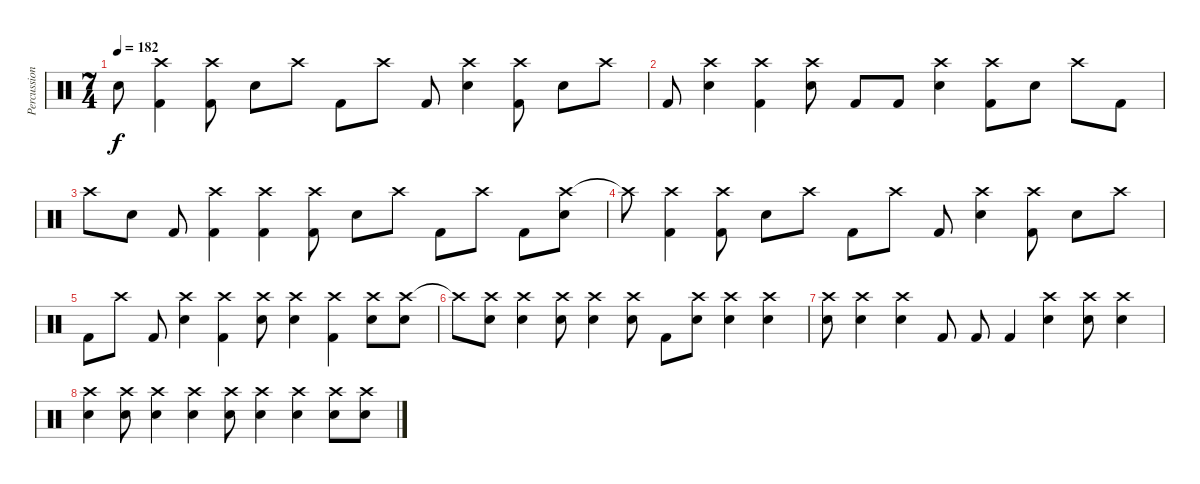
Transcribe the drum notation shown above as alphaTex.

\track ("Percussion" "Percussion") {instrument percussion}
\staff {score}
\articulation defaults
\ts (7 4)
\tempo 182
\clef neutral
\ks c "Electric Snare (hit)"{t}.8{dy f}
("Crash high (hit)" "Kick (hit) 2").4 ("Crash high (hit)" "Kick (hit) 2").8 "Electric Snare (hit)".8 "Crash high (hit)".8 "Kick (hit) 2".8 "Crash high (hit)".8 "Kick (hit) 2".8 ("Crash high (hit)" "Electric Snare (hit)").4 ("Crash high (hit)" "Kick (hit) 2").8 "Electric Snare (hit)".8 "Crash high (hit)".8 |
"Kick (hit) 2".8 ("Crash high (hit)" "Electric Snare (hit)").4 ("Crash high (hit)" "Kick (hit) 2").4 ("Crash high (hit)" "Electric Snare (hit)").8 "Kick (hit) 2".8 "Kick (hit) 2".8 ("Crash high (hit)" "Electric Snare (hit)").4 ("Crash high (hit)" "Kick (hit) 2").8 "Electric Snare (hit)".8 "Crash high (hit)".8 "Kick (hit) 2".8 |
"Crash high (hit)".8 "Electric Snare (hit)".8 "Kick (hit) 2".8 ("Crash high (hit)" "Kick (hit) 2").4 ("Crash high (hit)" "Kick (hit) 2").4 ("Crash high (hit)" "Kick (hit) 2").8 "Electric Snare (hit)".8 "Crash high (hit)".8 "Kick (hit) 2".8 "Crash high (hit)".8 "Kick (hit) 2".8 ("Crash high (hit)" "Electric Snare (hit)").8 |
"Crash high (hit)"{t}.8 ("Crash high (hit)" "Kick (hit) 2").4 ("Crash high (hit)" "Kick (hit) 2").8 "Electric Snare (hit)".8 "Crash high (hit)".8 "Kick (hit) 2".8 "Crash high (hit)".8 "Kick (hit) 2".8 ("Crash high (hit)" "Electric Snare (hit)").4 ("Crash high (hit)" "Kick (hit) 2").8 "Electric Snare (hit)".8 "Crash high (hit)".8 |
"Kick (hit) 2".8 "Crash high (hit)".8 "Kick (hit) 2".8 ("Crash high (hit)" "Electric Snare (hit)").4 ("Crash high (hit)" "Kick (hit) 2").4 ("Crash high (hit)" "Electric Snare (hit)").8 ("Crash high (hit)" "Electric Snare (hit)").4 ("Crash high (hit)" "Kick (hit) 2").4 ("Crash high (hit)" "Electric Snare (hit)").8 ("Crash high (hit)" "Electric Snare (hit)").8 |
"Crash high (hit)"{t}.8 ("Crash high (hit)" "Electric Snare (hit)").8 ("Crash high (hit)" "Electric Snare (hit)").4 ("Crash high (hit)" "Electric Snare (hit)").8 ("Crash high (hit)" "Electric Snare (hit)").4 ("Crash high (hit)" "Electric Snare (hit)").8 "Kick (hit) 2".8 ("Crash high (hit)" "Electric Snare (hit)").8 ("Crash high (hit)" "Electric Snare (hit)").4 ("Crash high (hit)" "Electric Snare (hit)").4 |
("Crash high (hit)" "Electric Snare (hit)").8 ("Crash high (hit)" "Electric Snare (hit)").4 ("Crash high (hit)" "Electric Snare (hit)").4 "Kick (hit) 2".8 "Kick (hit) 2".8 "Kick (hit) 2".4 ("Crash high (hit)" "Electric Snare (hit)").4 ("Crash high (hit)" "Electric Snare (hit)").8 ("Crash high (hit)" "Electric Snare (hit)").4 |
("Crash high (hit)" "Electric Snare (hit)").4 ("Crash high (hit)" "Electric Snare (hit)").8 ("Crash high (hit)" "Electric Snare (hit)").4 ("Crash high (hit)" "Electric Snare (hit)").4 ("Crash high (hit)" "Electric Snare (hit)").8 ("Crash high (hit)" "Electric Snare (hit)").4 ("Crash high (hit)" "Electric Snare (hit)").4 ("Crash high (hit)" "Electric Snare (hit)").8 ("Crash high (hit)" "Electric Snare (hit)").8
